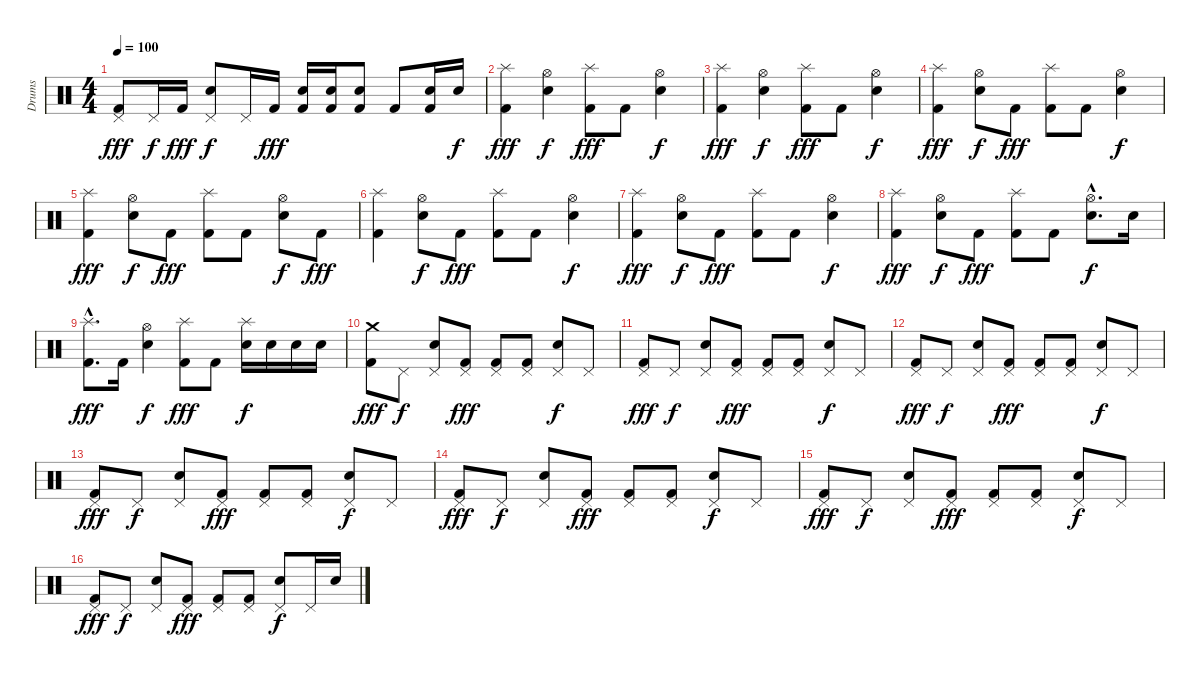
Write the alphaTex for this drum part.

\track ("Drums" "Drums") {instrument percussion}
\staff {score}
\articulation defaults
\ts (4 4)
\tempo 100
\clef neutral
\ks c
("Pedal Hi-Hat (hit)" "Kick (hit) 2").8{dy fff} "Pedal Hi-Hat (hit)".16{dy f} "Kick (hit) 2".16{dy fff} ("Pedal Hi-Hat (hit)" "Electric Snare (hit)").8{dy f} "Pedal Hi-Hat (hit)".16 "Kick (hit) 2".16{dy fff} ("Electric Snare (hit)" "Kick (hit) 2").16 ("Electric Snare (hit)" "Kick (hit) 2").16 ("Electric Snare (hit)" "Kick (hit) 2").8 "Kick (hit) 2".8 ("Electric Snare (hit)" "Kick (hit) 2").16 "Electric Snare (hit)".16{dy f} |
("Splash (hit)" "Kick (hit) 2").4{dy fff} ("Hi-Hat (open)" "Electric Snare (hit)").4{dy f} ("Splash (hit)" "Kick (hit) 2").8{dy fff} "Kick (hit) 2".8 ("Hi-Hat (open)" "Electric Snare (hit)").4{dy f} |
("Splash (hit)" "Kick (hit) 2").4{dy fff} ("Hi-Hat (open)" "Electric Snare (hit)").4{dy f} ("Splash (hit)" "Kick (hit) 2").8{dy fff} "Kick (hit) 2".8 ("Hi-Hat (open)" "Electric Snare (hit)").4{dy f} |
("Splash (hit)" "Kick (hit) 2").4{dy fff} ("Hi-Hat (open)" "Electric Snare (hit)").8{dy f} "Kick (hit) 2".8{dy fff} ("Splash (hit)" "Kick (hit) 2").8 "Kick (hit) 2".8 ("Hi-Hat (open)" "Electric Snare (hit)").4{dy f} |
("Splash (hit)" "Kick (hit) 2").4{dy fff} ("Hi-Hat (open)" "Electric Snare (hit)").8{dy f} "Kick (hit) 2".8{dy fff} ("Splash (hit)" "Kick (hit) 2").8 "Kick (hit) 2".8 ("Hi-Hat (open)" "Electric Snare (hit)").8{dy f} "Kick (hit) 2".8{dy fff} |
("Splash (hit)" "Kick (hit) 2").4 ("Hi-Hat (open)" "Electric Snare (hit)").8{dy f} "Kick (hit) 2".8{dy fff} ("Splash (hit)" "Kick (hit) 2").8 "Kick (hit) 2".8 ("Hi-Hat (open)" "Electric Snare (hit)").4{dy f} |
("Splash (hit)" "Kick (hit) 2").4{dy fff} ("Hi-Hat (open)" "Electric Snare (hit)").8{dy f} "Kick (hit) 2".8{dy fff} ("Splash (hit)" "Kick (hit) 2").8 "Kick (hit) 2".8 ("Hi-Hat (open)" "Electric Snare (hit)").4{dy f} |
("Splash (hit)" "Kick (hit) 2").4{dy fff} ("Hi-Hat (open)" "Electric Snare (hit)").8{dy f} "Kick (hit) 2".8{dy fff} ("Splash (hit)" "Kick (hit) 2").8 "Kick (hit) 2".8 ("Hi-Hat (open)"{hac} "Electric Snare (hit)"{hac}).8{d dy f} "Electric Snare (hit)".16 |
("Splash (hit)"{hac} "Kick (hit) 2"{hac}).8{d dy fff} "Kick (hit) 2".16 ("Hi-Hat (open)" "Electric Snare (hit)").4{dy f} ("Splash (hit)" "Kick (hit) 2").8{dy fff} "Kick (hit) 2".8 ("Splash (hit)" "Electric Snare (hit)").16{dy f} "Electric Snare (hit)".16 "Electric Snare (hit)".16 "Electric Snare (hit)".16 |
("Crash medium (hit)" "Kick (hit) 2").8{dy fff} "Pedal Hi-Hat (hit)".8{dy f} ("Pedal Hi-Hat (hit)" "Electric Snare (hit)").8 ("Pedal Hi-Hat (hit)" "Kick (hit) 2").8{dy fff} ("Pedal Hi-Hat (hit)" "Kick (hit) 2").8 ("Pedal Hi-Hat (hit)" "Kick (hit) 2").8 ("Pedal Hi-Hat (hit)" "Electric Snare (hit)").8{dy f} "Pedal Hi-Hat (hit)".8 |
("Pedal Hi-Hat (hit)" "Kick (hit) 2").8{dy fff} "Pedal Hi-Hat (hit)".8{dy f} ("Pedal Hi-Hat (hit)" "Electric Snare (hit)").8 ("Pedal Hi-Hat (hit)" "Kick (hit) 2").8{dy fff} ("Pedal Hi-Hat (hit)" "Kick (hit) 2").8 ("Pedal Hi-Hat (hit)" "Kick (hit) 2").8 ("Pedal Hi-Hat (hit)" "Electric Snare (hit)").8{dy f} "Pedal Hi-Hat (hit)".8 |
("Pedal Hi-Hat (hit)" "Kick (hit) 2").8{dy fff} "Pedal Hi-Hat (hit)".8{dy f} ("Pedal Hi-Hat (hit)" "Electric Snare (hit)").8 ("Pedal Hi-Hat (hit)" "Kick (hit) 2").8{dy fff} ("Pedal Hi-Hat (hit)" "Kick (hit) 2").8 ("Pedal Hi-Hat (hit)" "Kick (hit) 2").8 ("Pedal Hi-Hat (hit)" "Electric Snare (hit)").8{dy f} "Pedal Hi-Hat (hit)".8 |
("Pedal Hi-Hat (hit)" "Kick (hit) 2").8{dy fff} "Pedal Hi-Hat (hit)".8{dy f} ("Pedal Hi-Hat (hit)" "Electric Snare (hit)").8 ("Pedal Hi-Hat (hit)" "Kick (hit) 2").8{dy fff} ("Pedal Hi-Hat (hit)" "Kick (hit) 2").8 ("Pedal Hi-Hat (hit)" "Kick (hit) 2").8 ("Pedal Hi-Hat (hit)" "Electric Snare (hit)").8{dy f} "Pedal Hi-Hat (hit)".8 |
("Pedal Hi-Hat (hit)" "Kick (hit) 2").8{dy fff} "Pedal Hi-Hat (hit)".8{dy f} ("Pedal Hi-Hat (hit)" "Electric Snare (hit)").8 ("Pedal Hi-Hat (hit)" "Kick (hit) 2").8{dy fff} ("Pedal Hi-Hat (hit)" "Kick (hit) 2").8 ("Pedal Hi-Hat (hit)" "Kick (hit) 2").8 ("Pedal Hi-Hat (hit)" "Electric Snare (hit)").8{dy f} "Pedal Hi-Hat (hit)".8 |
("Pedal Hi-Hat (hit)" "Kick (hit) 2").8{dy fff} "Pedal Hi-Hat (hit)".8{dy f} ("Pedal Hi-Hat (hit)" "Electric Snare (hit)").8 ("Pedal Hi-Hat (hit)" "Kick (hit) 2").8{dy fff} ("Pedal Hi-Hat (hit)" "Kick (hit) 2").8 ("Pedal Hi-Hat (hit)" "Kick (hit) 2").8 ("Pedal Hi-Hat (hit)" "Electric Snare (hit)").8{dy f} "Pedal Hi-Hat (hit)".8 |
("Pedal Hi-Hat (hit)" "Kick (hit) 2").8{dy fff} "Pedal Hi-Hat (hit)".8{dy f} ("Pedal Hi-Hat (hit)" "Electric Snare (hit)").8 ("Pedal Hi-Hat (hit)" "Kick (hit) 2").8{dy fff} ("Pedal Hi-Hat (hit)" "Kick (hit) 2").8 ("Pedal Hi-Hat (hit)" "Kick (hit) 2").8 ("Pedal Hi-Hat (hit)" "Electric Snare (hit)").8{dy f} "Pedal Hi-Hat (hit)".16 "Electric Snare (hit)".16
